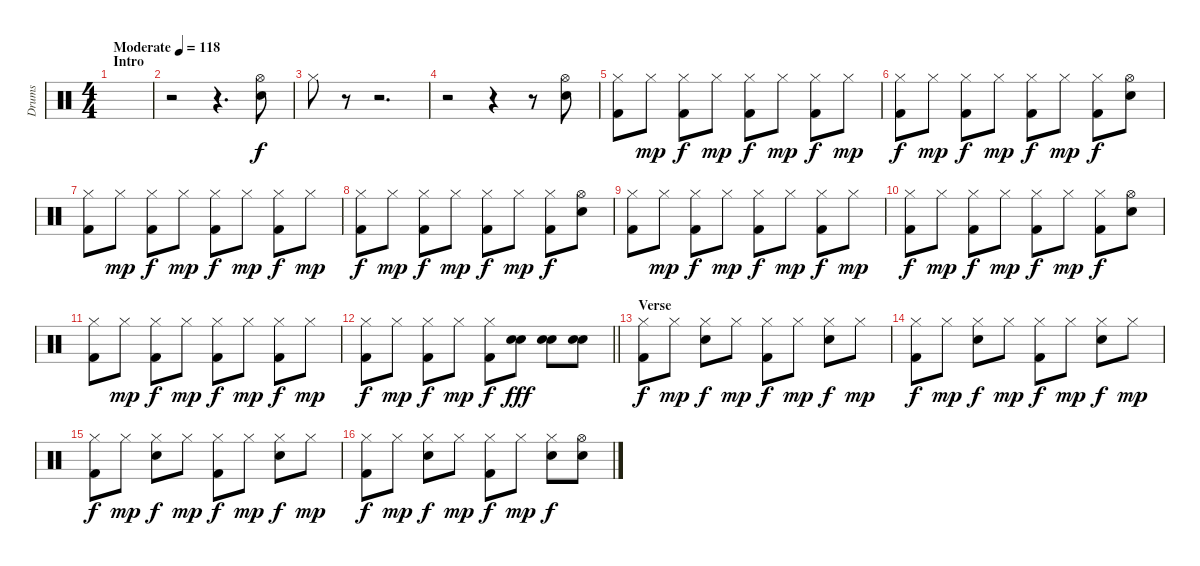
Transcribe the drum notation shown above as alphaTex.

\track ("Drums" "Drums") {instrument percussion}
\staff {score}
\articulation defaults
\ts (4 4)
\section ("" "Intro")
\tempo (118 "Moderate")
\clef neutral
\ks c
|
r.2 r.4{d} ("Hi-Hat (open)" "Snare (hit) 2").8 |
"Hi-Hat (closed)".8 r.8 r.2{d} |
r.2 r.4 r.8 ("Hi-Hat (open)" "Snare (hit) 2").8 |
("Hi-Hat (closed)" "Kick (hit) 2").8 "Hi-Hat (closed)".8{dy mp} ("Hi-Hat (closed)" "Kick (hit) 2").8{dy f} "Hi-Hat (closed)".8{dy mp} ("Hi-Hat (closed)" "Kick (hit) 2").8{dy f} "Hi-Hat (closed)".8{dy mp} ("Hi-Hat (closed)" "Kick (hit) 2").8{dy f} "Hi-Hat (closed)".8{dy mp} |
("Hi-Hat (closed)" "Kick (hit) 2").8{dy f} "Hi-Hat (closed)".8{dy mp} ("Hi-Hat (closed)" "Kick (hit) 2").8{dy f} "Hi-Hat (closed)".8{dy mp} ("Hi-Hat (closed)" "Kick (hit) 2").8{dy f} "Hi-Hat (closed)".8{dy mp} ("Hi-Hat (closed)" "Kick (hit) 2").8{dy f} ("Hi-Hat (open)" "Snare (hit) 2").8 |
("Hi-Hat (closed)" "Kick (hit) 2").8 "Hi-Hat (closed)".8{dy mp} ("Hi-Hat (closed)" "Kick (hit) 2").8{dy f} "Hi-Hat (closed)".8{dy mp} ("Hi-Hat (closed)" "Kick (hit) 2").8{dy f} "Hi-Hat (closed)".8{dy mp} ("Hi-Hat (closed)" "Kick (hit) 2").8{dy f} "Hi-Hat (closed)".8{dy mp} |
("Hi-Hat (closed)" "Kick (hit) 2").8{dy f} "Hi-Hat (closed)".8{dy mp} ("Hi-Hat (closed)" "Kick (hit) 2").8{dy f} "Hi-Hat (closed)".8{dy mp} ("Hi-Hat (closed)" "Kick (hit) 2").8{dy f} "Hi-Hat (closed)".8{dy mp} ("Hi-Hat (closed)" "Kick (hit) 2").8{dy f} ("Hi-Hat (open)" "Snare (hit) 2").8 |
("Hi-Hat (closed)" "Kick (hit) 2").8 "Hi-Hat (closed)".8{dy mp} ("Hi-Hat (closed)" "Kick (hit) 2").8{dy f} "Hi-Hat (closed)".8{dy mp} ("Hi-Hat (closed)" "Kick (hit) 2").8{dy f} "Hi-Hat (closed)".8{dy mp} ("Hi-Hat (closed)" "Kick (hit) 2").8{dy f} "Hi-Hat (closed)".8{dy mp} |
("Hi-Hat (closed)" "Kick (hit) 2").8{dy f} "Hi-Hat (closed)".8{dy mp} ("Hi-Hat (closed)" "Kick (hit) 2").8{dy f} "Hi-Hat (closed)".8{dy mp} ("Hi-Hat (closed)" "Kick (hit) 2").8{dy f} "Hi-Hat (closed)".8{dy mp} ("Hi-Hat (closed)" "Kick (hit) 2").8{dy f} ("Hi-Hat (open)" "Snare (hit) 2").8 |
("Hi-Hat (closed)" "Kick (hit) 2").8 "Hi-Hat (closed)".8{dy mp} ("Hi-Hat (closed)" "Kick (hit) 2").8{dy f} "Hi-Hat (closed)".8{dy mp} ("Hi-Hat (closed)" "Kick (hit) 2").8{dy f} "Hi-Hat (closed)".8{dy mp} ("Hi-Hat (closed)" "Kick (hit) 2").8{dy f} "Hi-Hat (closed)".8{dy mp} |
\barLineRight lightlight
("Hi-Hat (closed)" "Kick (hit) 2").8{dy f} "Hi-Hat (closed)".8{dy mp} ("Hi-Hat (closed)" "Kick (hit) 2").8{dy f} "Hi-Hat (closed)".8{dy mp} ("Hi-Hat (closed)" "Kick (hit) 2").8{dy f} ("Snare (hit) 2" "Hand Clap (hit)").8{dy fff} ("Snare (hit) 2" "Hand Clap (hit)").8 ("Snare (hit) 2" "Hand Clap (hit)").8 |
\section ("" "Verse")
("Hi-Hat (closed)" "Kick (hit) 2").8{dy f} "Hi-Hat (closed)".8{dy mp} ("Hi-Hat (closed)" "Snare (hit) 2").8{dy f} "Hi-Hat (closed)".8{dy mp} ("Hi-Hat (closed)" "Kick (hit) 2").8{dy f} "Hi-Hat (closed)".8{dy mp} ("Hi-Hat (closed)" "Snare (hit) 2").8{dy f} "Hi-Hat (closed)".8{dy mp} |
("Hi-Hat (closed)" "Kick (hit) 2").8{dy f} "Hi-Hat (closed)".8{dy mp} ("Hi-Hat (closed)" "Snare (hit) 2").8{dy f} "Hi-Hat (closed)".8{dy mp} ("Hi-Hat (closed)" "Kick (hit) 2").8{dy f} "Hi-Hat (closed)".8{dy mp} ("Hi-Hat (closed)" "Snare (hit) 2").8{dy f} "Hi-Hat (closed)".8{dy mp} |
("Hi-Hat (closed)" "Kick (hit) 2").8{dy f} "Hi-Hat (closed)".8{dy mp} ("Hi-Hat (closed)" "Snare (hit) 2").8{dy f} "Hi-Hat (closed)".8{dy mp} ("Hi-Hat (closed)" "Kick (hit) 2").8{dy f} "Hi-Hat (closed)".8{dy mp} ("Hi-Hat (closed)" "Snare (hit) 2").8{dy f} "Hi-Hat (closed)".8{dy mp} |
("Hi-Hat (closed)" "Kick (hit) 2").8{dy f} "Hi-Hat (closed)".8{dy mp} ("Hi-Hat (closed)" "Snare (hit) 2").8{dy f} "Hi-Hat (closed)".8{dy mp} ("Hi-Hat (closed)" "Kick (hit) 2").8{dy f} "Hi-Hat (closed)".8{dy mp} ("Hi-Hat (closed)" "Snare (hit) 2").8{dy f} ("Hi-Hat (open)" "Snare (hit) 2").8
